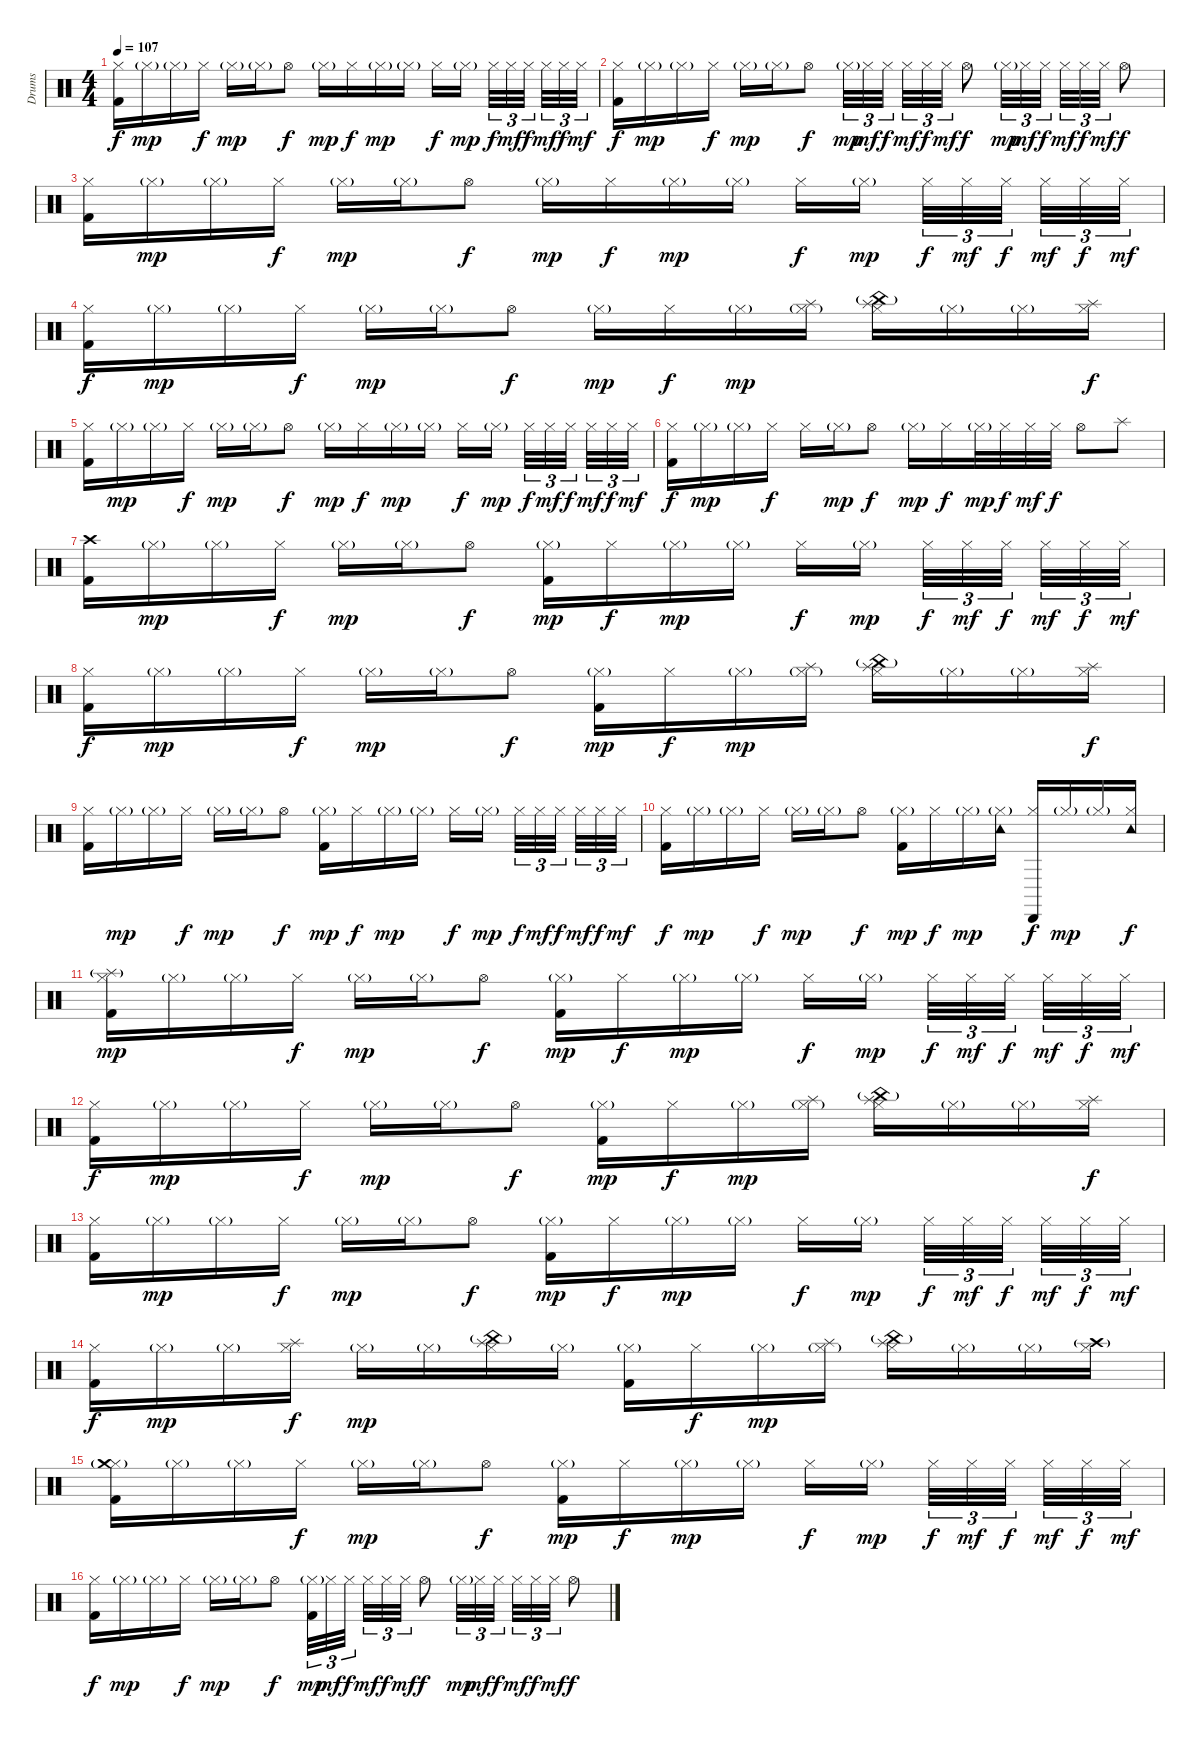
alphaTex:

\track ("Drums" "Drums") {instrument percussion}
\staff {score}
\articulation defaults
\ts (4 4)
\tempo 107
\clef neutral
\ks c
("Kick (hit) 2" "Hi-Hat (closed)").16{dy f} "Hi-Hat (closed)"{g}.16{dy mp} "Hi-Hat (closed)"{g}.16 "Hi-Hat (closed)".16{dy f} "Hi-Hat (closed)"{g}.16{dy mp} "Hi-Hat (closed)"{g}.16 "Hi-Hat (open)".8{dy f} "Hi-Hat (closed)"{g}.16{dy mp} "Hi-Hat (closed)".16{dy f} "Hi-Hat (closed)"{g}.16{dy mp} "Hi-Hat (closed)"{g}.16 "Hi-Hat (closed)".16{dy f} "Hi-Hat (closed)"{g}.16{dy mp} "Hi-Hat (closed)".32{tu (3 2) dy f} "Hi-Hat (closed)".32{tu (3 2) dy mf} "Hi-Hat (closed)".32{tu (3 2) dy f} "Hi-Hat (closed)".32{tu (3 2) dy mf} "Hi-Hat (closed)".32{tu (3 2) dy f} "Hi-Hat (closed)".32{tu (3 2) dy mf} |
("Kick (hit) 2" "Hi-Hat (closed)").16{dy f} "Hi-Hat (closed)"{g}.16{dy mp} "Hi-Hat (closed)"{g}.16 "Hi-Hat (closed)".16{dy f} "Hi-Hat (closed)"{g}.16{dy mp} "Hi-Hat (closed)"{g}.16 "Hi-Hat (open)".8{dy f} "Hi-Hat (closed)"{g}.32{tu (3 2) dy mp} "Hi-Hat (closed)".32{tu (3 2) dy mf} "Hi-Hat (closed)".32{tu (3 2) dy f} "Hi-Hat (closed)".32{tu (3 2) dy mf} "Hi-Hat (closed)".32{tu (3 2) dy f} "Hi-Hat (closed)".32{tu (3 2) dy mf} "Hi-Hat (open)".8{dy f} "Hi-Hat (closed)"{g}.32{tu (3 2) dy mp} "Hi-Hat (closed)".32{tu (3 2) dy mf} "Hi-Hat (closed)".32{tu (3 2) dy f} "Hi-Hat (closed)".32{tu (3 2) dy mf} "Hi-Hat (closed)".32{tu (3 2) dy f} "Hi-Hat (closed)".32{tu (3 2) dy mf} "Hi-Hat (open)".8{dy f} |
("Kick (hit) 2" "Hi-Hat (closed)").16 "Hi-Hat (closed)"{g}.16{dy mp} "Hi-Hat (closed)"{g}.16 "Hi-Hat (closed)".16{dy f} "Hi-Hat (closed)"{g}.16{dy mp} "Hi-Hat (closed)"{g}.16 "Hi-Hat (open)".8{dy f} "Hi-Hat (closed)"{g}.16{dy mp} "Hi-Hat (closed)".16{dy f} "Hi-Hat (closed)"{g}.16{dy mp} "Hi-Hat (closed)"{g}.16 "Hi-Hat (closed)".16{dy f} "Hi-Hat (closed)"{g}.16{dy mp} "Hi-Hat (closed)".32{tu (3 2) dy f} "Hi-Hat (closed)".32{tu (3 2) dy mf} "Hi-Hat (closed)".32{tu (3 2) dy f} "Hi-Hat (closed)".32{tu (3 2) dy mf} "Hi-Hat (closed)".32{tu (3 2) dy f} "Hi-Hat (closed)".32{tu (3 2) dy mf} |
("Kick (hit) 2" "Hi-Hat (closed)").16{dy f} "Hi-Hat (closed)"{g}.16{dy mp} "Hi-Hat (closed)"{g}.16 "Hi-Hat (closed)".16{dy f} "Hi-Hat (closed)"{g}.16{dy mp} "Hi-Hat (closed)"{g}.16 "Hi-Hat (open)".8{dy f} "Hi-Hat (closed)"{g}.16{dy mp} "Hi-Hat (closed)".16{dy f} "Hi-Hat (closed)"{g}.16{dy mp} ("Hi-Hat (closed)"{g} "Splash (hit)").16 ("Hi-Hat (closed)" "Splash (hit)" "China (hit)"{g}).16 "Hi-Hat (closed)"{g}.16 "Hi-Hat (closed)"{g}.16 ("Hi-Hat (closed)" "Splash (hit)").16{dy f} |
("Kick (hit) 2" "Hi-Hat (closed)").16 "Hi-Hat (closed)"{g}.16{dy mp} "Hi-Hat (closed)"{g}.16 "Hi-Hat (closed)".16{dy f} "Hi-Hat (closed)"{g}.16{dy mp} "Hi-Hat (closed)"{g}.16 "Hi-Hat (open)".8{dy f} "Hi-Hat (closed)"{g}.16{dy mp} "Hi-Hat (closed)".16{dy f} "Hi-Hat (closed)"{g}.16{dy mp} "Hi-Hat (closed)"{g}.16 "Hi-Hat (closed)".16{dy f} "Hi-Hat (closed)"{g}.16{dy mp} "Hi-Hat (closed)".32{tu (3 2) dy f} "Hi-Hat (closed)".32{tu (3 2) dy mf} "Hi-Hat (closed)".32{tu (3 2) dy f} "Hi-Hat (closed)".32{tu (3 2) dy mf} "Hi-Hat (closed)".32{tu (3 2) dy f} "Hi-Hat (closed)".32{tu (3 2) dy mf} |
("Kick (hit) 2" "Hi-Hat (closed)").16{dy f} "Hi-Hat (closed)"{g}.16{dy mp} "Hi-Hat (closed)"{g}.16 "Hi-Hat (closed)".16{dy f} "Hi-Hat (closed)".16 "Hi-Hat (closed)"{g}.16{dy mp} "Hi-Hat (open)".8{dy f} "Hi-Hat (closed)"{g}.16{dy mp} "Hi-Hat (closed)".16{dy f} "Hi-Hat (closed)"{g}.32{dy mp} "Hi-Hat (closed)".32{dy f} "Hi-Hat (closed)".32{dy mf} "Hi-Hat (closed)".32{dy f} "Hi-Hat (open)".8 "Splash (hit)".8 |
("Kick (hit) 2" "Crash high (hit)").16 "Hi-Hat (closed)"{g}.16{dy mp} "Hi-Hat (closed)"{g}.16 "Hi-Hat (closed)".16{dy f} "Hi-Hat (closed)"{g}.16{dy mp} "Hi-Hat (closed)"{g}.16 "Hi-Hat (open)".8{dy f} ("Kick (hit) 2" "Hi-Hat (closed)"{g}).16{dy mp} "Hi-Hat (closed)".16{dy f} "Hi-Hat (closed)"{g}.16{dy mp} "Hi-Hat (closed)"{g}.16 "Hi-Hat (closed)".16{dy f} "Hi-Hat (closed)"{g}.16{dy mp} "Hi-Hat (closed)".32{tu (3 2) dy f} "Hi-Hat (closed)".32{tu (3 2) dy mf} "Hi-Hat (closed)".32{tu (3 2) dy f} "Hi-Hat (closed)".32{tu (3 2) dy mf} "Hi-Hat (closed)".32{tu (3 2) dy f} "Hi-Hat (closed)".32{tu (3 2) dy mf} |
("Kick (hit) 2" "Hi-Hat (closed)").16{dy f} "Hi-Hat (closed)"{g}.16{dy mp} "Hi-Hat (closed)"{g}.16 "Hi-Hat (closed)".16{dy f} "Hi-Hat (closed)"{g}.16{dy mp} "Hi-Hat (closed)"{g}.16 "Hi-Hat (open)".8{dy f} ("Kick (hit) 2" "Hi-Hat (closed)"{g}).16{dy mp} "Hi-Hat (closed)".16{dy f} "Hi-Hat (closed)"{g}.16{dy mp} ("Hi-Hat (closed)"{g} "Splash (hit)").16 ("Hi-Hat (closed)" "Splash (hit)" "China (hit)"{g}).16 "Hi-Hat (closed)"{g}.16 "Hi-Hat (closed)"{g}.16 ("Hi-Hat (closed)" "Splash (hit)").16{dy f} |
("Kick (hit) 2" "Hi-Hat (closed)").16 "Hi-Hat (closed)"{g}.16{dy mp} "Hi-Hat (closed)"{g}.16 "Hi-Hat (closed)".16{dy f} "Hi-Hat (closed)"{g}.16{dy mp} "Hi-Hat (closed)"{g}.16 "Hi-Hat (open)".8{dy f} ("Kick (hit) 2" "Hi-Hat (closed)"{g}).16{dy mp} "Hi-Hat (closed)".16{dy f} "Hi-Hat (closed)"{g}.16{dy mp} "Hi-Hat (closed)"{g}.16 "Hi-Hat (closed)".16{dy f} "Hi-Hat (closed)"{g}.16{dy mp} "Hi-Hat (closed)".32{tu (3 2) dy f} "Hi-Hat (closed)".32{tu (3 2) dy mf} "Hi-Hat (closed)".32{tu (3 2) dy f} "Hi-Hat (closed)".32{tu (3 2) dy mf} "Hi-Hat (closed)".32{tu (3 2) dy f} "Hi-Hat (closed)".32{tu (3 2) dy mf} |
("Kick (hit) 2" "Hi-Hat (closed)").16{dy f} "Hi-Hat (closed)"{g}.16{dy mp} "Hi-Hat (closed)"{g}.16 "Hi-Hat (closed)".16{dy f} "Hi-Hat (closed)"{g}.16{dy mp} "Hi-Hat (closed)"{g}.16 "Hi-Hat (open)".8{dy f} ("Kick (hit) 2" "Hi-Hat (closed)"{g}).16{dy mp} "Hi-Hat (closed)".16{dy f} "Hi-Hat (closed)"{g}.16{dy mp} ("Hi-Hat (closed)"{g} "Tambourine (hit)").16 ("Hi-Hat (closed)" "Cabasa (hit)").16{dy f} "Hi-Hat (closed)"{g}.16{dy mp} "Hi-Hat (closed)"{g}.16 ("Hi-Hat (closed)" "Tambourine (hit)").16{dy f} |
("Kick (hit) 2" "Hi-Hat (closed)" "Splash (hit)"{g}).16{dy mp} "Hi-Hat (closed)"{g}.16 "Hi-Hat (closed)"{g}.16 "Hi-Hat (closed)".16{dy f} "Hi-Hat (closed)"{g}.16{dy mp} "Hi-Hat (closed)"{g}.16 "Hi-Hat (open)".8{dy f} ("Kick (hit) 2" "Hi-Hat (closed)"{g}).16{dy mp} "Hi-Hat (closed)".16{dy f} "Hi-Hat (closed)"{g}.16{dy mp} "Hi-Hat (closed)"{g}.16 "Hi-Hat (closed)".16{dy f} "Hi-Hat (closed)"{g}.16{dy mp} "Hi-Hat (closed)".32{tu (3 2) dy f} "Hi-Hat (closed)".32{tu (3 2) dy mf} "Hi-Hat (closed)".32{tu (3 2) dy f} "Hi-Hat (closed)".32{tu (3 2) dy mf} "Hi-Hat (closed)".32{tu (3 2) dy f} "Hi-Hat (closed)".32{tu (3 2) dy mf} |
("Kick (hit) 2" "Hi-Hat (closed)").16{dy f} "Hi-Hat (closed)"{g}.16{dy mp} "Hi-Hat (closed)"{g}.16 "Hi-Hat (closed)".16{dy f} "Hi-Hat (closed)"{g}.16{dy mp} "Hi-Hat (closed)"{g}.16 "Hi-Hat (open)".8{dy f} ("Kick (hit) 2" "Hi-Hat (closed)"{g}).16{dy mp} "Hi-Hat (closed)".16{dy f} "Hi-Hat (closed)"{g}.16{dy mp} ("Hi-Hat (closed)"{g} "Splash (hit)").16 ("Hi-Hat (closed)" "Splash (hit)" "China (hit)"{g}).16 "Hi-Hat (closed)"{g}.16 "Hi-Hat (closed)"{g}.16 ("Hi-Hat (closed)" "Splash (hit)").16{dy f} |
("Kick (hit) 2" "Hi-Hat (closed)").16 "Hi-Hat (closed)"{g}.16{dy mp} "Hi-Hat (closed)"{g}.16 "Hi-Hat (closed)".16{dy f} "Hi-Hat (closed)"{g}.16{dy mp} "Hi-Hat (closed)"{g}.16 "Hi-Hat (open)".8{dy f} ("Kick (hit) 2" "Hi-Hat (closed)"{g}).16{dy mp} "Hi-Hat (closed)".16{dy f} "Hi-Hat (closed)"{g}.16{dy mp} "Hi-Hat (closed)"{g}.16 "Hi-Hat (closed)".16{dy f} "Hi-Hat (closed)"{g}.16{dy mp} "Hi-Hat (closed)".32{tu (3 2) dy f} "Hi-Hat (closed)".32{tu (3 2) dy mf} "Hi-Hat (closed)".32{tu (3 2) dy f} "Hi-Hat (closed)".32{tu (3 2) dy mf} "Hi-Hat (closed)".32{tu (3 2) dy f} "Hi-Hat (closed)".32{tu (3 2) dy mf} |
("Kick (hit) 2" "Hi-Hat (closed)").16{dy f} "Hi-Hat (closed)"{g}.16{dy mp} "Hi-Hat (closed)"{g}.16 ("Hi-Hat (closed)" "Splash (hit)").16{dy f} "Hi-Hat (closed)"{g}.16{dy mp} "Hi-Hat (closed)"{g}.16 ("Hi-Hat (closed)" "Splash (hit)" "China (hit)"{g}).16 "Hi-Hat (closed)"{g}.16 ("Kick (hit) 2" "Hi-Hat (closed)"{g}).16 "Hi-Hat (closed)".16{dy f} "Hi-Hat (closed)"{g}.16{dy mp} ("Hi-Hat (closed)"{g} "Splash (hit)").16 ("Hi-Hat (closed)" "Splash (hit)" "China (hit)"{g}).16 "Hi-Hat (closed)"{g}.16 "Hi-Hat (closed)"{g}.16 ("Hi-Hat (closed)" "Crash high (hit)"{g}).16 |
("Kick (hit) 2" "Hi-Hat (closed)" "Crash medium (hit)"{g}).16 "Hi-Hat (closed)"{g}.16 "Hi-Hat (closed)"{g}.16 "Hi-Hat (closed)".16{dy f} "Hi-Hat (closed)"{g}.16{dy mp} "Hi-Hat (closed)"{g}.16 "Hi-Hat (open)".8{dy f} ("Kick (hit) 2" "Hi-Hat (closed)"{g}).16{dy mp} "Hi-Hat (closed)".16{dy f} "Hi-Hat (closed)"{g}.16{dy mp} "Hi-Hat (closed)"{g}.16 "Hi-Hat (closed)".16{dy f} "Hi-Hat (closed)"{g}.16{dy mp} "Hi-Hat (closed)".32{tu (3 2) dy f} "Hi-Hat (closed)".32{tu (3 2) dy mf} "Hi-Hat (closed)".32{tu (3 2) dy f} "Hi-Hat (closed)".32{tu (3 2) dy mf} "Hi-Hat (closed)".32{tu (3 2) dy f} "Hi-Hat (closed)".32{tu (3 2) dy mf} |
("Kick (hit) 2" "Hi-Hat (closed)").16{dy f} "Hi-Hat (closed)"{g}.16{dy mp} "Hi-Hat (closed)"{g}.16 "Hi-Hat (closed)".16{dy f} "Hi-Hat (closed)"{g}.16{dy mp} "Hi-Hat (closed)"{g}.16 "Hi-Hat (open)".8{dy f} ("Kick (hit) 2" "Hi-Hat (closed)"{g}).32{tu (3 2) dy mp} "Hi-Hat (closed)".32{tu (3 2) dy mf} "Hi-Hat (closed)".32{tu (3 2) dy f} "Hi-Hat (closed)".32{tu (3 2) dy mf} "Hi-Hat (closed)".32{tu (3 2) dy f} "Hi-Hat (closed)".32{tu (3 2) dy mf} "Hi-Hat (open)".8{dy f} "Hi-Hat (closed)"{g}.32{tu (3 2) dy mp} "Hi-Hat (closed)".32{tu (3 2) dy mf} "Hi-Hat (closed)".32{tu (3 2) dy f} "Hi-Hat (closed)".32{tu (3 2) dy mf} "Hi-Hat (closed)".32{tu (3 2) dy f} "Hi-Hat (closed)".32{tu (3 2) dy mf} "Hi-Hat (open)".8{dy f}
